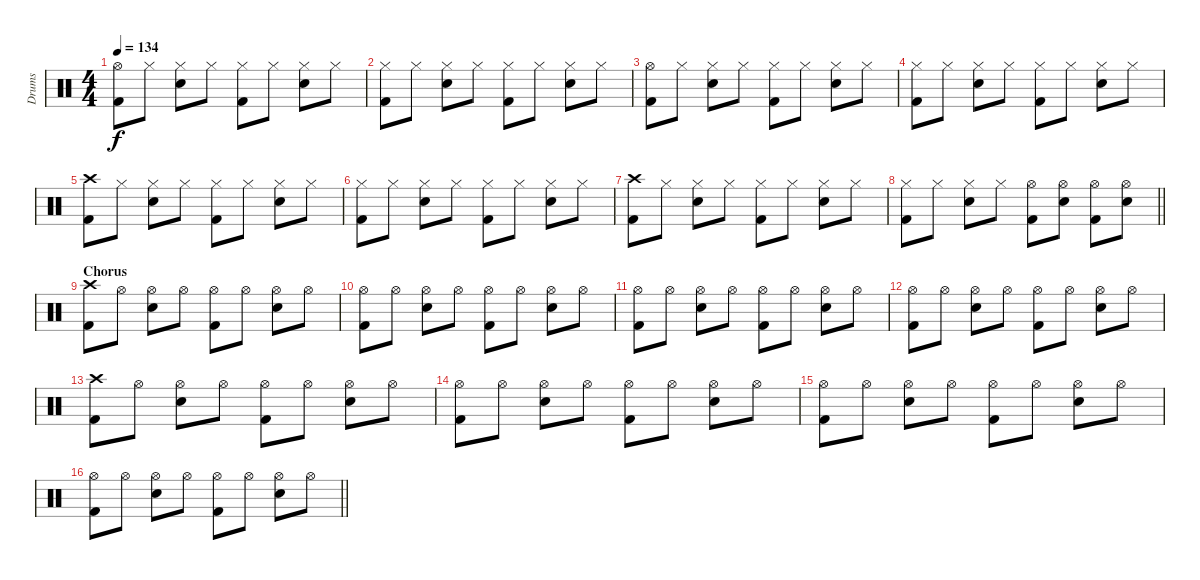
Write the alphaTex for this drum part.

\track ("Drums" "Drums") {instrument percussion}
\staff {score}
\articulation defaults
\ts (4 4)
\tempo 134
\clef neutral
\ks c
("Hi-Hat (open)" "Kick (hit) 2").8{dy f} "Hi-Hat (closed)".8 ("Hi-Hat (closed)" "Snare (hit) 2").8 "Hi-Hat (closed)".8 ("Hi-Hat (closed)" "Kick (hit) 2").8 "Hi-Hat (closed)".8 ("Hi-Hat (closed)" "Snare (hit) 2").8 "Hi-Hat (closed)".8 |
("Hi-Hat (closed)" "Kick (hit) 2").8 "Hi-Hat (closed)".8 ("Hi-Hat (closed)" "Snare (hit) 2").8 "Hi-Hat (closed)".8 ("Hi-Hat (closed)" "Kick (hit) 2").8 "Hi-Hat (closed)".8 ("Hi-Hat (closed)" "Snare (hit) 2").8 "Hi-Hat (closed)".8 |
("Hi-Hat (open)" "Kick (hit) 2").8 "Hi-Hat (closed)".8 ("Hi-Hat (closed)" "Snare (hit) 2").8 "Hi-Hat (closed)".8 ("Hi-Hat (closed)" "Kick (hit) 2").8 "Hi-Hat (closed)".8 ("Hi-Hat (closed)" "Snare (hit) 2").8 "Hi-Hat (closed)".8 |
("Hi-Hat (closed)" "Kick (hit) 2").8 "Hi-Hat (closed)".8 ("Hi-Hat (closed)" "Snare (hit) 2").8 "Hi-Hat (closed)".8 ("Hi-Hat (closed)" "Kick (hit) 2").8 "Hi-Hat (closed)".8 ("Hi-Hat (closed)" "Snare (hit) 2").8 "Hi-Hat (closed)".8 |
("Crash high (hit)" "Kick (hit) 2").8 "Hi-Hat (closed)".8 ("Hi-Hat (closed)" "Snare (hit) 2").8 "Hi-Hat (closed)".8 ("Hi-Hat (closed)" "Kick (hit) 2").8 "Hi-Hat (closed)".8 ("Hi-Hat (closed)" "Snare (hit) 2").8 "Hi-Hat (closed)".8 |
("Hi-Hat (closed)" "Kick (hit) 2").8 "Hi-Hat (closed)".8 ("Hi-Hat (closed)" "Snare (hit) 2").8 "Hi-Hat (closed)".8 ("Hi-Hat (closed)" "Kick (hit) 2").8 "Hi-Hat (closed)".8 ("Hi-Hat (closed)" "Snare (hit) 2").8 "Hi-Hat (closed)".8 |
("Crash high (hit)" "Kick (hit) 2").8 "Hi-Hat (closed)".8 ("Hi-Hat (closed)" "Snare (hit) 2").8 "Hi-Hat (closed)".8 ("Hi-Hat (closed)" "Kick (hit) 2").8 "Hi-Hat (closed)".8 ("Hi-Hat (closed)" "Snare (hit) 2").8 "Hi-Hat (closed)".8 |
\barLineRight lightlight
("Hi-Hat (closed)" "Kick (hit) 2").8 "Hi-Hat (closed)".8 ("Hi-Hat (closed)" "Snare (hit) 2").8 "Hi-Hat (closed)".8 ("Hi-Hat (open)" "Kick (hit) 2").8 ("Hi-Hat (open)" "Snare (hit) 2").8 ("Hi-Hat (open)" "Kick (hit) 2").8 ("Hi-Hat (open)" "Snare (hit) 2").8 |
\section ("" "Chorus")
("Crash high (hit)" "Kick (hit) 2").8 "Hi-Hat (open)".8 ("Hi-Hat (open)" "Snare (hit) 2").8 "Hi-Hat (open)".8 ("Hi-Hat (open)" "Kick (hit) 2").8 "Hi-Hat (open)".8 ("Hi-Hat (open)" "Snare (hit) 2").8 "Hi-Hat (open)".8 |
("Hi-Hat (open)" "Kick (hit) 2").8 "Hi-Hat (open)".8 ("Hi-Hat (open)" "Snare (hit) 2").8 "Hi-Hat (open)".8 ("Hi-Hat (open)" "Kick (hit) 2").8 "Hi-Hat (open)".8 ("Hi-Hat (open)" "Snare (hit) 2").8 "Hi-Hat (open)".8 |
("Hi-Hat (open)" "Kick (hit) 2").8 "Hi-Hat (open)".8 ("Hi-Hat (open)" "Snare (hit) 2").8 "Hi-Hat (open)".8 ("Hi-Hat (open)" "Kick (hit) 2").8 "Hi-Hat (open)".8 ("Hi-Hat (open)" "Snare (hit) 2").8 "Hi-Hat (open)".8 |
("Hi-Hat (open)" "Kick (hit) 2").8 "Hi-Hat (open)".8 ("Hi-Hat (open)" "Snare (hit) 2").8 "Hi-Hat (open)".8 ("Hi-Hat (open)" "Kick (hit) 2").8 "Hi-Hat (open)".8 ("Hi-Hat (open)" "Snare (hit) 2").8 "Hi-Hat (open)".8 |
("Crash high (hit)" "Kick (hit) 2").8 "Hi-Hat (open)".8 ("Hi-Hat (open)" "Snare (hit) 2").8 "Hi-Hat (open)".8 ("Hi-Hat (open)" "Kick (hit) 2").8 "Hi-Hat (open)".8 ("Hi-Hat (open)" "Snare (hit) 2").8 "Hi-Hat (open)".8 |
("Hi-Hat (open)" "Kick (hit) 2").8 "Hi-Hat (open)".8 ("Hi-Hat (open)" "Snare (hit) 2").8 "Hi-Hat (open)".8 ("Hi-Hat (open)" "Kick (hit) 2").8 "Hi-Hat (open)".8 ("Hi-Hat (open)" "Snare (hit) 2").8 "Hi-Hat (open)".8 |
("Hi-Hat (open)" "Kick (hit) 2").8 "Hi-Hat (open)".8 ("Hi-Hat (open)" "Snare (hit) 2").8 "Hi-Hat (open)".8 ("Hi-Hat (open)" "Kick (hit) 2").8 "Hi-Hat (open)".8 ("Hi-Hat (open)" "Snare (hit) 2").8 "Hi-Hat (open)".8 |
\barLineRight lightlight
("Hi-Hat (open)" "Kick (hit) 2").8 "Hi-Hat (open)".8 ("Hi-Hat (open)" "Snare (hit) 2").8 "Hi-Hat (open)".8 ("Hi-Hat (open)" "Kick (hit) 2").8 "Hi-Hat (open)".8 ("Hi-Hat (open)" "Snare (hit) 2").8 "Hi-Hat (open)".8
